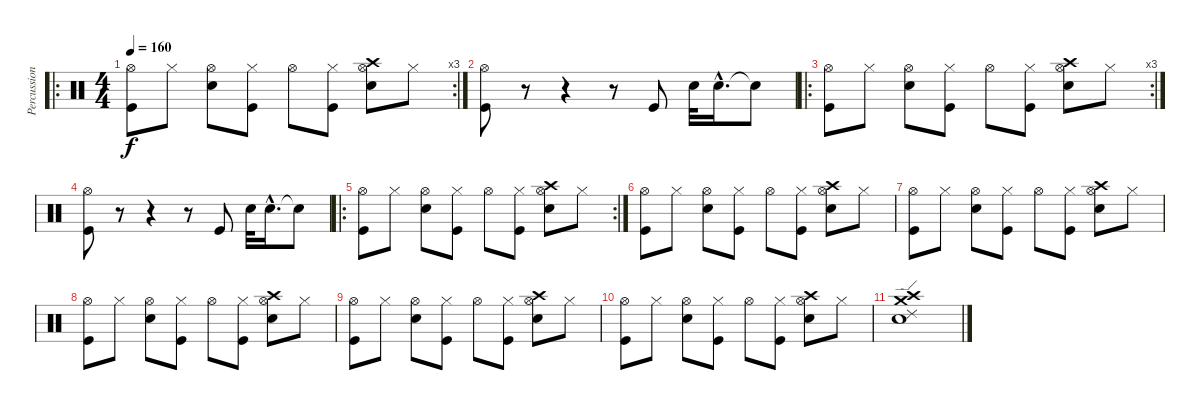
\track ("Percussions" "Percussion") {instrument percussion}
\staff {score}
\articulation defaults
\ro
\rc 3
\ts (4 4)
\tempo 160
\clef neutral
\ks c
("Hi-Hat (open)" "Kick (hit)").8{dy f} "Hi-Hat (closed)".8 ("Hi-Hat (open)" "Snare (hit) 2").8 ("Hi-Hat (closed)" "Kick (hit)").8 "Hi-Hat (open)".8 ("Hi-Hat (closed)" "Kick (hit)").8 ("Hi-Hat (open)" "Snare (hit) 2" "Crash high (hit)").8 "Hi-Hat (closed)".8 |
("Hi-Hat (open)" "Kick (hit)").8 r.8 r.4 r.8 "Kick (hit)".8 "Snare (hit) 2".32 "Snare (hit) 2"{hac}.16{d} "Snare (hit)"{t}.8 |
\ro
\rc 3
("Hi-Hat (open)" "Kick (hit)").8 "Hi-Hat (closed)".8 ("Hi-Hat (open)" "Snare (hit) 2").8 ("Hi-Hat (closed)" "Kick (hit)").8 "Hi-Hat (open)".8 ("Hi-Hat (closed)" "Kick (hit)").8 ("Hi-Hat (open)" "Snare (hit) 2" "Crash high (hit)").8 "Hi-Hat (closed)".8 |
("Hi-Hat (open)" "Kick (hit)").8 r.8 r.4 r.8 "Kick (hit)".8 "Snare (hit) 2".32 "Snare (hit) 2"{hac}.16{d} "Snare (hit)"{t}.8 |
\ro
\rc 2
("Hi-Hat (open)" "Kick (hit)").8 "Hi-Hat (closed)".8 ("Hi-Hat (open)" "Snare (hit) 2").8 ("Hi-Hat (closed)" "Kick (hit)").8 "Hi-Hat (open)".8 ("Hi-Hat (closed)" "Kick (hit)").8 ("Hi-Hat (open)" "Snare (hit) 2" "Crash high (hit)").8 "Hi-Hat (closed)".8 |
("Hi-Hat (open)" "Kick (hit)").8 "Hi-Hat (closed)".8 ("Hi-Hat (open)" "Snare (hit) 2").8 ("Hi-Hat (closed)" "Kick (hit)").8 "Hi-Hat (open)".8 ("Hi-Hat (closed)" "Kick (hit)").8 ("Hi-Hat (open)" "Snare (hit) 2" "Crash high (hit)").8 "Hi-Hat (closed)".8 |
("Hi-Hat (open)" "Kick (hit)").8 "Hi-Hat (closed)".8 ("Hi-Hat (open)" "Snare (hit) 2").8 ("Hi-Hat (closed)" "Kick (hit)").8 "Hi-Hat (open)".8 ("Hi-Hat (closed)" "Kick (hit)").8 ("Hi-Hat (open)" "Snare (hit) 2" "Crash high (hit)").8 "Hi-Hat (closed)".8 |
("Hi-Hat (open)" "Kick (hit)").8 "Hi-Hat (closed)".8 ("Hi-Hat (open)" "Snare (hit) 2").8 ("Hi-Hat (closed)" "Kick (hit)").8 "Hi-Hat (open)".8 ("Hi-Hat (closed)" "Kick (hit)").8 ("Hi-Hat (open)" "Snare (hit) 2" "Crash high (hit)").8 "Hi-Hat (closed)".8 |
("Hi-Hat (open)" "Kick (hit)").8 "Hi-Hat (closed)".8 ("Hi-Hat (open)" "Snare (hit) 2").8 ("Hi-Hat (closed)" "Kick (hit)").8 "Hi-Hat (open)".8 ("Hi-Hat (closed)" "Kick (hit)").8 ("Hi-Hat (open)" "Snare (hit) 2" "Crash high (hit)").8 "Hi-Hat (closed)".8 |
("Hi-Hat (open)" "Kick (hit)").8 "Hi-Hat (closed)".8 ("Hi-Hat (open)" "Snare (hit) 2").8 ("Hi-Hat (closed)" "Kick (hit)").8 "Hi-Hat (open)".8 ("Hi-Hat (closed)" "Kick (hit)").8 ("Hi-Hat (open)" "Snare (hit) 2" "Crash high (hit)").8 "Hi-Hat (closed)".8 |
("Snare (hit) 2" "Crash high (hit)" "Crash medium (hit)" "Ride (edge) 2").1
